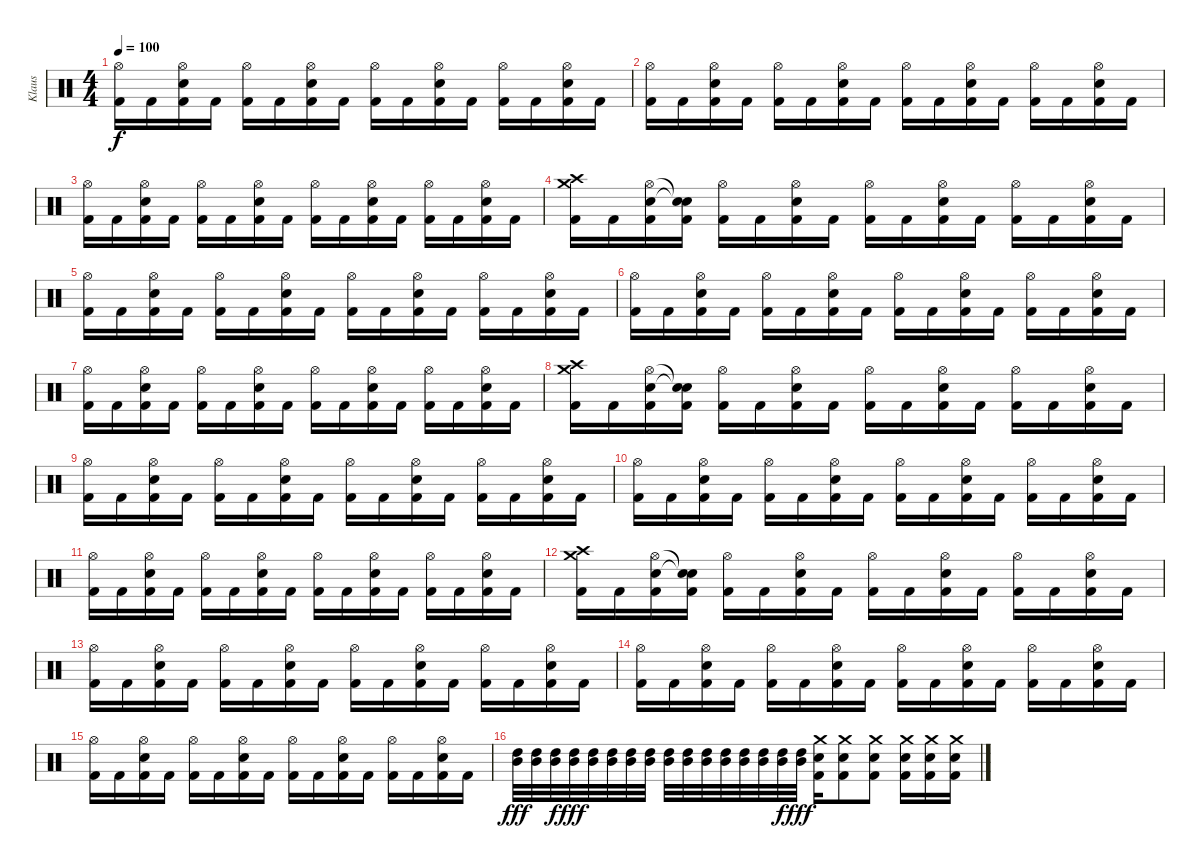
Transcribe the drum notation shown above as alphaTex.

\track ("Klaus" "Klaus") {instrument percussion}
\staff {score}
\articulation defaults
\ts (4 4)
\tempo 100
\clef neutral
\ks c
("Hi-Hat (open)" "Kick (hit) 2").16{dy f} "Kick (hit) 2".16 ("Hi-Hat (open)" "Electric Snare (hit)" "Kick (hit) 2").16 "Kick (hit) 2".16 ("Hi-Hat (open)" "Kick (hit) 2").16 "Kick (hit) 2".16 ("Hi-Hat (open)" "Electric Snare (hit)" "Kick (hit) 2").16 "Kick (hit) 2".16 ("Hi-Hat (open)" "Kick (hit) 2").16 "Kick (hit) 2".16 ("Hi-Hat (open)" "Electric Snare (hit)" "Kick (hit) 2").16 "Kick (hit) 2".16 ("Hi-Hat (open)" "Kick (hit) 2").16 "Kick (hit) 2".16 ("Hi-Hat (open)" "Electric Snare (hit)" "Kick (hit) 2").16 "Kick (hit) 2".16 |
("Hi-Hat (open)" "Kick (hit) 2").16 "Kick (hit) 2".16 ("Hi-Hat (open)" "Electric Snare (hit)" "Kick (hit) 2").16 "Kick (hit) 2".16 ("Hi-Hat (open)" "Kick (hit) 2").16 "Kick (hit) 2".16 ("Hi-Hat (open)" "Electric Snare (hit)" "Kick (hit) 2").16 "Kick (hit) 2".16 ("Hi-Hat (open)" "Kick (hit) 2").16 "Kick (hit) 2".16 ("Hi-Hat (open)" "Electric Snare (hit)" "Kick (hit) 2").16 "Kick (hit) 2".16 ("Hi-Hat (open)" "Kick (hit) 2").16 "Kick (hit) 2".16 ("Hi-Hat (open)" "Electric Snare (hit)" "Kick (hit) 2").16 "Kick (hit) 2".16 |
("Hi-Hat (open)" "Kick (hit) 2").16 "Kick (hit) 2".16 ("Hi-Hat (open)" "Electric Snare (hit)" "Kick (hit) 2").16 "Kick (hit) 2".16 ("Hi-Hat (open)" "Kick (hit) 2").16 "Kick (hit) 2".16 ("Hi-Hat (open)" "Electric Snare (hit)" "Kick (hit) 2").16 "Kick (hit) 2".16 ("Hi-Hat (open)" "Kick (hit) 2").16 "Kick (hit) 2".16 ("Hi-Hat (open)" "Electric Snare (hit)" "Kick (hit) 2").16 "Kick (hit) 2".16 ("Hi-Hat (open)" "Kick (hit) 2").16 "Kick (hit) 2".16 ("Hi-Hat (open)" "Electric Snare (hit)" "Kick (hit) 2").16 "Kick (hit) 2".16 |
("Crash high (hit)" "Crash medium (hit)" "Kick (hit) 2").16 "Kick (hit) 2".16 ("Hi-Hat (open)" "Electric Snare (hit)" "Kick (hit) 2").16 ("Snare (hit)"{t} "Snare (hit)"{t} "Kick (hit) 2").16 ("Hi-Hat (open)" "Kick (hit) 2").16 "Kick (hit) 2".16 ("Hi-Hat (open)" "Electric Snare (hit)" "Kick (hit) 2").16 "Kick (hit) 2".16 ("Hi-Hat (open)" "Kick (hit) 2").16 "Kick (hit) 2".16 ("Hi-Hat (open)" "Electric Snare (hit)" "Kick (hit) 2").16 "Kick (hit) 2".16 ("Hi-Hat (open)" "Kick (hit) 2").16 "Kick (hit) 2".16 ("Hi-Hat (open)" "Electric Snare (hit)" "Kick (hit) 2").16 "Kick (hit) 2".16 |
("Hi-Hat (open)" "Kick (hit) 2").16 "Kick (hit) 2".16 ("Hi-Hat (open)" "Electric Snare (hit)" "Kick (hit) 2").16 "Kick (hit) 2".16 ("Hi-Hat (open)" "Kick (hit) 2").16 "Kick (hit) 2".16 ("Hi-Hat (open)" "Electric Snare (hit)" "Kick (hit) 2").16 "Kick (hit) 2".16 ("Hi-Hat (open)" "Kick (hit) 2").16 "Kick (hit) 2".16 ("Hi-Hat (open)" "Electric Snare (hit)" "Kick (hit) 2").16 "Kick (hit) 2".16 ("Hi-Hat (open)" "Kick (hit) 2").16 "Kick (hit) 2".16 ("Hi-Hat (open)" "Electric Snare (hit)" "Kick (hit) 2").16 "Kick (hit) 2".16 |
("Hi-Hat (open)" "Kick (hit) 2").16 "Kick (hit) 2".16 ("Hi-Hat (open)" "Electric Snare (hit)" "Kick (hit) 2").16 "Kick (hit) 2".16 ("Hi-Hat (open)" "Kick (hit) 2").16 "Kick (hit) 2".16 ("Hi-Hat (open)" "Electric Snare (hit)" "Kick (hit) 2").16 "Kick (hit) 2".16 ("Hi-Hat (open)" "Kick (hit) 2").16 "Kick (hit) 2".16 ("Hi-Hat (open)" "Electric Snare (hit)" "Kick (hit) 2").16 "Kick (hit) 2".16 ("Hi-Hat (open)" "Kick (hit) 2").16 "Kick (hit) 2".16 ("Hi-Hat (open)" "Electric Snare (hit)" "Kick (hit) 2").16 "Kick (hit) 2".16 |
("Hi-Hat (open)" "Kick (hit) 2").16 "Kick (hit) 2".16 ("Hi-Hat (open)" "Electric Snare (hit)" "Kick (hit) 2").16 "Kick (hit) 2".16 ("Hi-Hat (open)" "Kick (hit) 2").16 "Kick (hit) 2".16 ("Hi-Hat (open)" "Electric Snare (hit)" "Kick (hit) 2").16 "Kick (hit) 2".16 ("Hi-Hat (open)" "Kick (hit) 2").16 "Kick (hit) 2".16 ("Hi-Hat (open)" "Electric Snare (hit)" "Kick (hit) 2").16 "Kick (hit) 2".16 ("Hi-Hat (open)" "Kick (hit) 2").16 "Kick (hit) 2".16 ("Hi-Hat (open)" "Electric Snare (hit)" "Kick (hit) 2").16 "Kick (hit) 2".16 |
("Crash high (hit)" "Crash medium (hit)" "Kick (hit) 2").16 "Kick (hit) 2".16 ("Hi-Hat (open)" "Electric Snare (hit)" "Kick (hit) 2").16 ("Snare (hit)"{t} "Snare (hit)"{t} "Kick (hit) 2").16 ("Hi-Hat (open)" "Kick (hit) 2").16 "Kick (hit) 2".16 ("Hi-Hat (open)" "Electric Snare (hit)" "Kick (hit) 2").16 "Kick (hit) 2".16 ("Hi-Hat (open)" "Kick (hit) 2").16 "Kick (hit) 2".16 ("Hi-Hat (open)" "Electric Snare (hit)" "Kick (hit) 2").16 "Kick (hit) 2".16 ("Hi-Hat (open)" "Kick (hit) 2").16 "Kick (hit) 2".16 ("Hi-Hat (open)" "Electric Snare (hit)" "Kick (hit) 2").16 "Kick (hit) 2".16 |
("Hi-Hat (open)" "Kick (hit) 2").16 "Kick (hit) 2".16 ("Hi-Hat (open)" "Electric Snare (hit)" "Kick (hit) 2").16 "Kick (hit) 2".16 ("Hi-Hat (open)" "Kick (hit) 2").16 "Kick (hit) 2".16 ("Hi-Hat (open)" "Electric Snare (hit)" "Kick (hit) 2").16 "Kick (hit) 2".16 ("Hi-Hat (open)" "Kick (hit) 2").16 "Kick (hit) 2".16 ("Hi-Hat (open)" "Electric Snare (hit)" "Kick (hit) 2").16 "Kick (hit) 2".16 ("Hi-Hat (open)" "Kick (hit) 2").16 "Kick (hit) 2".16 ("Hi-Hat (open)" "Electric Snare (hit)" "Kick (hit) 2").16 "Kick (hit) 2".16 |
("Hi-Hat (open)" "Kick (hit) 2").16 "Kick (hit) 2".16 ("Hi-Hat (open)" "Electric Snare (hit)" "Kick (hit) 2").16 "Kick (hit) 2".16 ("Hi-Hat (open)" "Kick (hit) 2").16 "Kick (hit) 2".16 ("Hi-Hat (open)" "Electric Snare (hit)" "Kick (hit) 2").16 "Kick (hit) 2".16 ("Hi-Hat (open)" "Kick (hit) 2").16 "Kick (hit) 2".16 ("Hi-Hat (open)" "Electric Snare (hit)" "Kick (hit) 2").16 "Kick (hit) 2".16 ("Hi-Hat (open)" "Kick (hit) 2").16 "Kick (hit) 2".16 ("Hi-Hat (open)" "Electric Snare (hit)" "Kick (hit) 2").16 "Kick (hit) 2".16 |
("Hi-Hat (open)" "Kick (hit) 2").16 "Kick (hit) 2".16 ("Hi-Hat (open)" "Electric Snare (hit)" "Kick (hit) 2").16 "Kick (hit) 2".16 ("Hi-Hat (open)" "Kick (hit) 2").16 "Kick (hit) 2".16 ("Hi-Hat (open)" "Electric Snare (hit)" "Kick (hit) 2").16 "Kick (hit) 2".16 ("Hi-Hat (open)" "Kick (hit) 2").16 "Kick (hit) 2".16 ("Hi-Hat (open)" "Electric Snare (hit)" "Kick (hit) 2").16 "Kick (hit) 2".16 ("Hi-Hat (open)" "Kick (hit) 2").16 "Kick (hit) 2".16 ("Hi-Hat (open)" "Electric Snare (hit)" "Kick (hit) 2").16 "Kick (hit) 2".16 |
("Crash high (hit)" "Crash medium (hit)" "Kick (hit) 2").16 "Kick (hit) 2".16 ("Hi-Hat (open)" "Electric Snare (hit)" "Kick (hit) 2").16 ("Snare (hit)"{t} "Snare (hit)"{t} "Kick (hit) 2").16 ("Hi-Hat (open)" "Kick (hit) 2").16 "Kick (hit) 2".16 ("Hi-Hat (open)" "Electric Snare (hit)" "Kick (hit) 2").16 "Kick (hit) 2".16 ("Hi-Hat (open)" "Kick (hit) 2").16 "Kick (hit) 2".16 ("Hi-Hat (open)" "Electric Snare (hit)" "Kick (hit) 2").16 "Kick (hit) 2".16 ("Hi-Hat (open)" "Kick (hit) 2").16 "Kick (hit) 2".16 ("Hi-Hat (open)" "Electric Snare (hit)" "Kick (hit) 2").16 "Kick (hit) 2".16 |
("Hi-Hat (open)" "Kick (hit) 2").16 "Kick (hit) 2".16 ("Hi-Hat (open)" "Electric Snare (hit)" "Kick (hit) 2").16 "Kick (hit) 2".16 ("Hi-Hat (open)" "Kick (hit) 2").16 "Kick (hit) 2".16 ("Hi-Hat (open)" "Electric Snare (hit)" "Kick (hit) 2").16 "Kick (hit) 2".16 ("Hi-Hat (open)" "Kick (hit) 2").16 "Kick (hit) 2".16 ("Hi-Hat (open)" "Electric Snare (hit)" "Kick (hit) 2").16 "Kick (hit) 2".16 ("Hi-Hat (open)" "Kick (hit) 2").16 "Kick (hit) 2".16 ("Hi-Hat (open)" "Electric Snare (hit)" "Kick (hit) 2").16 "Kick (hit) 2".16 |
("Hi-Hat (open)" "Kick (hit) 2").16 "Kick (hit) 2".16 ("Hi-Hat (open)" "Electric Snare (hit)" "Kick (hit) 2").16 "Kick (hit) 2".16 ("Hi-Hat (open)" "Kick (hit) 2").16 "Kick (hit) 2".16 ("Hi-Hat (open)" "Electric Snare (hit)" "Kick (hit) 2").16 "Kick (hit) 2".16 ("Hi-Hat (open)" "Kick (hit) 2").16 "Kick (hit) 2".16 ("Hi-Hat (open)" "Electric Snare (hit)" "Kick (hit) 2").16 "Kick (hit) 2".16 ("Hi-Hat (open)" "Kick (hit) 2").16 "Kick (hit) 2".16 ("Hi-Hat (open)" "Electric Snare (hit)" "Kick (hit) 2").16 "Kick (hit) 2".16 |
("Hi-Hat (open)" "Kick (hit) 2").16 "Kick (hit) 2".16 ("Hi-Hat (open)" "Electric Snare (hit)" "Kick (hit) 2").16 "Kick (hit) 2".16 ("Hi-Hat (open)" "Kick (hit) 2").16 "Kick (hit) 2".16 ("Hi-Hat (open)" "Electric Snare (hit)" "Kick (hit) 2").16 "Kick (hit) 2".16 ("Hi-Hat (open)" "Kick (hit) 2").16 "Kick (hit) 2".16 ("Hi-Hat (open)" "Electric Snare (hit)" "Kick (hit) 2").16 "Kick (hit) 2".16 ("Hi-Hat (open)" "Kick (hit) 2").16 "Kick (hit) 2".16 ("Hi-Hat (open)" "Electric Snare (hit)" "Kick (hit) 2").16 "Kick (hit) 2".16 |
("High Tom (hit)" "Mid Tom (hit)").32{dy fff} ("High Tom (hit)" "Mid Tom (hit)").32 ("High Tom (hit)" "Mid Tom (hit)").32{dy f} ("High Tom (hit)" "Mid Tom (hit)").32{dy fff} ("High Tom (hit)" "Mid Tom (hit)").32 ("High Tom (hit)" "Mid Tom (hit)").32 ("High Tom (hit)" "Mid Tom (hit)").32 ("High Tom (hit)" "Mid Tom (hit)").32 ("High Tom (hit)" "Mid Tom (hit)").32 ("High Tom (hit)" "Mid Tom (hit)").32 ("High Tom (hit)" "Mid Tom (hit)").32 ("High Tom (hit)" "Mid Tom (hit)").32 ("High Tom (hit)" "Mid Tom (hit)").32 ("High Tom (hit)" "Mid Tom (hit)").32 ("High Tom (hit)" "Mid Tom (hit)").32{dy f} ("High Tom (hit)" "Mid Tom (hit)").32{dy fff} ("Crash medium (hit)" "Electric Snare (hit)" "Kick (hit) 2").16 ("Crash medium (hit)" "Electric Snare (hit)" "Kick (hit) 2").8 ("Crash medium (hit)" "Electric Snare (hit)" "Kick (hit) 2").8 ("Crash medium (hit)" "Electric Snare (hit)" "Kick (hit) 2").16 ("Crash medium (hit)" "Electric Snare (hit)" "Kick (hit) 2").16 ("Crash medium (hit)" "Electric Snare (hit)" "Kick (hit) 2").16
